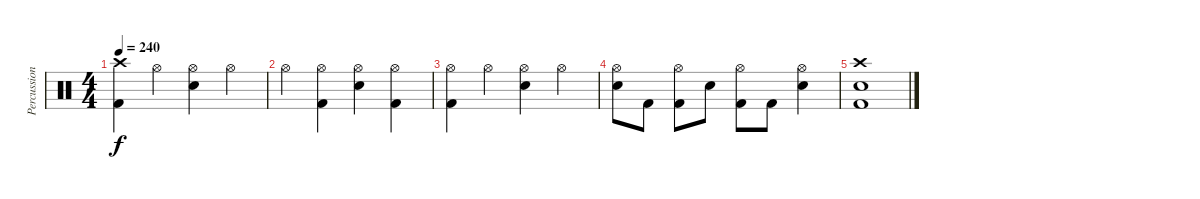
\track ("Percussion" "Percussion") {instrument percussion}
\staff {score}
\articulation defaults
\ts (4 4)
\tempo 240
\clef neutral
\ks c
("Crash high (hit)" "Kick (hit) 2").4{dy f} "Hi-Hat (open)".4 ("Hi-Hat (open)" "Snare (hit) 2").4 "Hi-Hat (open)".4 |
"Hi-Hat (open)".4 ("Hi-Hat (open)" "Kick (hit) 2").4 ("Hi-Hat (open)" "Snare (hit) 2").4 ("Hi-Hat (open)" "Kick (hit) 2").4 |
("Hi-Hat (open)" "Kick (hit) 2").4 "Hi-Hat (open)".4 ("Hi-Hat (open)" "Snare (hit) 2").4 "Hi-Hat (open)".4 |
("Hi-Hat (open)" "Snare (hit) 2").8 "Kick (hit) 2".8 ("Hi-Hat (open)" "Kick (hit) 2").8 "Snare (hit) 2".8 ("Hi-Hat (open)" "Kick (hit) 2").8 "Kick (hit) 2".8 ("Hi-Hat (open)" "Snare (hit) 2").4 |
("Crash high (hit)" "Snare (hit) 2" "Kick (hit) 2").1
